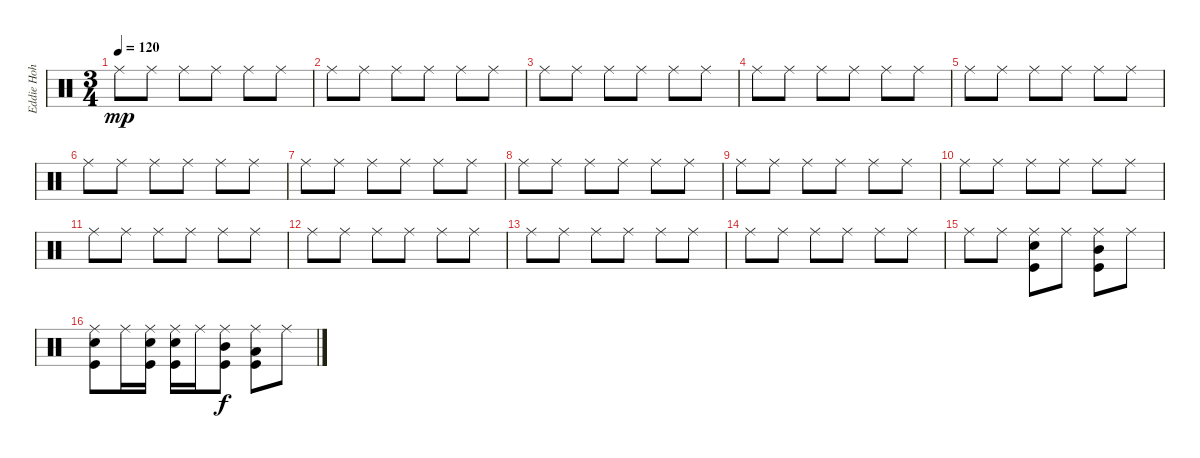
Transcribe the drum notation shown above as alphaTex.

\track ("Eddie Hoh" "Eddie Hoh") {instrument percussion}
\staff {score}
\articulation defaults
\ts (3 4)
\tempo 120
\clef neutral
\ks c "Ride (middle)".8{dy mp} "Ride (middle)".8 "Ride (middle)".8 "Ride (middle)".8 "Ride (middle)".8 "Ride (middle)".8
|
"Ride (middle)".8 "Ride (middle)".8 "Ride (middle)".8 "Ride (middle)".8 "Ride (middle)".8 "Ride (middle)".8 |
"Ride (middle)".8 "Ride (middle)".8 "Ride (middle)".8 "Ride (middle)".8 "Ride (middle)".8 "Ride (middle)".8 |
"Ride (middle)".8 "Ride (middle)".8 "Ride (middle)".8 "Ride (middle)".8 "Ride (middle)".8 "Ride (middle)".8 |
"Ride (middle)".8 "Ride (middle)".8 "Ride (middle)".8 "Ride (middle)".8 "Ride (middle)".8 "Ride (middle)".8 |
"Ride (middle)".8 "Ride (middle)".8 "Ride (middle)".8 "Ride (middle)".8 "Ride (middle)".8 "Ride (middle)".8 |
"Ride (middle)".8 "Ride (middle)".8 "Ride (middle)".8 "Ride (middle)".8 "Ride (middle)".8 "Ride (middle)".8 |
"Ride (middle)".8 "Ride (middle)".8 "Ride (middle)".8 "Ride (middle)".8 "Ride (middle)".8 "Ride (middle)".8 |
"Ride (middle)".8 "Ride (middle)".8 "Ride (middle)".8 "Ride (middle)".8 "Ride (middle)".8 "Ride (middle)".8 |
"Ride (middle)".8 "Ride (middle)".8 "Ride (middle)".8 "Ride (middle)".8 "Ride (middle)".8 "Ride (middle)".8 |
"Ride (middle)".8 "Ride (middle)".8 "Ride (middle)".8 "Ride (middle)".8 "Ride (middle)".8 "Ride (middle)".8 |
"Ride (middle)".8 "Ride (middle)".8 "Ride (middle)".8 "Ride (middle)".8 "Ride (middle)".8 "Ride (middle)".8 |
"Ride (middle)".8 "Ride (middle)".8 "Ride (middle)".8 "Ride (middle)".8 "Ride (middle)".8 "Ride (middle)".8 |
"Ride (middle)".8 "Ride (middle)".8 "Ride (middle)".8 "Ride (middle)".8 "Ride (middle)".8 "Ride (middle)".8 |
"Ride (middle)".8 "Ride (middle)".8 ("Ride (middle)" "Snare (hit) 2" "Kick (hit)").8 "Ride (middle)".8 ("Ride (middle)" "Mid Tom (hit)" "Kick (hit)").8 "Ride (middle)".8 |
("Ride (middle)" "Snare (hit) 2" "Kick (hit)").8 "Ride (middle)".16 ("Ride (middle)" "Snare (hit) 2" "Kick (hit)").16 ("Ride (middle)" "Snare (hit) 2" "Kick (hit)").16 "Ride (middle)".16 ("Ride (middle)" "Mid Tom (hit)" "Kick (hit)").8{dy f} ("Ride (middle)" "Low Tom (hit)" "Kick (hit)").8 "Ride (middle)".8
